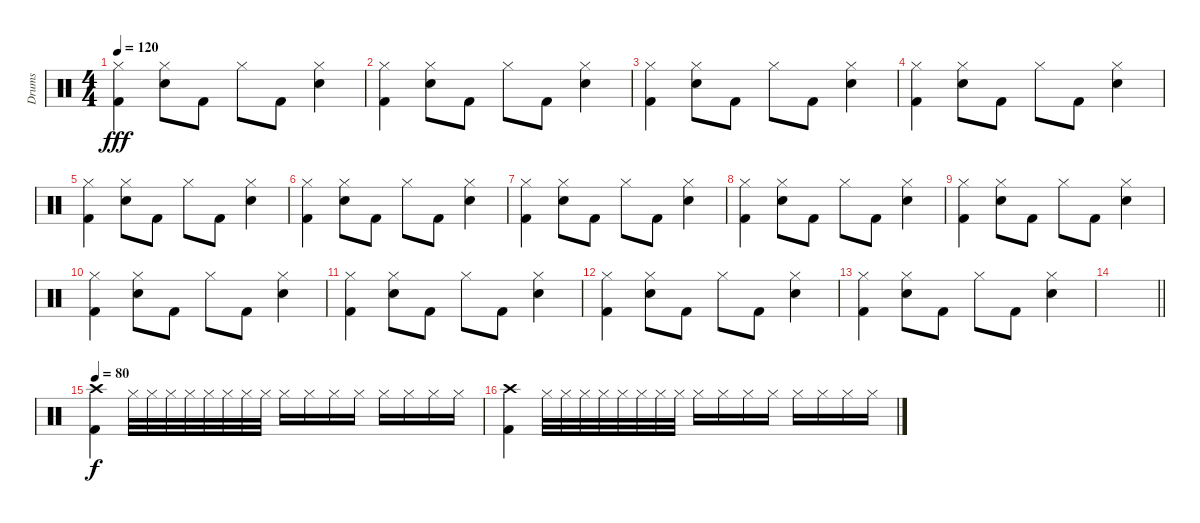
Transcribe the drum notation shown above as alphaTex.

\track ("Drums" "Drums") {instrument percussion}
\staff {score}
\articulation defaults
\ts (4 4)
\tempo 120
\clef neutral
\ks c
("Hi-Hat (closed)" "Kick (hit) 2").4{dy fff} ("Hi-Hat (closed)" "Snare (hit) 2").8 "Kick (hit) 2".8 "Hi-Hat (closed)".8 "Kick (hit) 2".8 ("Hi-Hat (closed)" "Snare (hit) 2").4 |
("Hi-Hat (closed)" "Kick (hit) 2").4 ("Hi-Hat (closed)" "Snare (hit) 2").8 "Kick (hit) 2".8 "Hi-Hat (closed)".8 "Kick (hit) 2".8 ("Hi-Hat (closed)" "Snare (hit) 2").4 |
("Hi-Hat (closed)" "Kick (hit) 2").4 ("Hi-Hat (closed)" "Snare (hit) 2").8 "Kick (hit) 2".8 "Hi-Hat (closed)".8 "Kick (hit) 2".8 ("Hi-Hat (closed)" "Snare (hit) 2").4 |
("Hi-Hat (closed)" "Kick (hit) 2").4 ("Hi-Hat (closed)" "Snare (hit) 2").8 "Kick (hit) 2".8 "Hi-Hat (closed)".8 "Kick (hit) 2".8 ("Hi-Hat (closed)" "Snare (hit) 2").4 |
("Hi-Hat (closed)" "Kick (hit) 2").4 ("Hi-Hat (closed)" "Snare (hit) 2").8 "Kick (hit) 2".8 "Hi-Hat (closed)".8 "Kick (hit) 2".8 ("Hi-Hat (closed)" "Snare (hit) 2").4 |
("Hi-Hat (closed)" "Kick (hit) 2").4 ("Hi-Hat (closed)" "Snare (hit) 2").8 "Kick (hit) 2".8 "Hi-Hat (closed)".8 "Kick (hit) 2".8 ("Hi-Hat (closed)" "Snare (hit) 2").4 |
("Hi-Hat (closed)" "Kick (hit) 2").4 ("Hi-Hat (closed)" "Snare (hit) 2").8 "Kick (hit) 2".8 "Hi-Hat (closed)".8 "Kick (hit) 2".8 ("Hi-Hat (closed)" "Snare (hit) 2").4 |
("Hi-Hat (closed)" "Kick (hit) 2").4 ("Hi-Hat (closed)" "Snare (hit) 2").8 "Kick (hit) 2".8 "Hi-Hat (closed)".8 "Kick (hit) 2".8 ("Hi-Hat (closed)" "Snare (hit) 2").4 |
("Hi-Hat (closed)" "Kick (hit) 2").4 ("Hi-Hat (closed)" "Snare (hit) 2").8 "Kick (hit) 2".8 "Hi-Hat (closed)".8 "Kick (hit) 2".8 ("Hi-Hat (closed)" "Snare (hit) 2").4 |
("Hi-Hat (closed)" "Kick (hit) 2").4 ("Hi-Hat (closed)" "Snare (hit) 2").8 "Kick (hit) 2".8 "Hi-Hat (closed)".8 "Kick (hit) 2".8 ("Hi-Hat (closed)" "Snare (hit) 2").4 |
("Hi-Hat (closed)" "Kick (hit) 2").4 ("Hi-Hat (closed)" "Snare (hit) 2").8 "Kick (hit) 2".8 "Hi-Hat (closed)".8 "Kick (hit) 2".8 ("Hi-Hat (closed)" "Snare (hit) 2").4 |
("Hi-Hat (closed)" "Kick (hit) 2").4 ("Hi-Hat (closed)" "Snare (hit) 2").8 "Kick (hit) 2".8 "Hi-Hat (closed)".8 "Kick (hit) 2".8 ("Hi-Hat (closed)" "Snare (hit) 2").4 |
("Hi-Hat (closed)" "Kick (hit) 2").4 ("Hi-Hat (closed)" "Snare (hit) 2").8 "Kick (hit) 2".8 "Hi-Hat (closed)".8 "Kick (hit) 2".8 ("Hi-Hat (closed)" "Snare (hit) 2").4 |
\barLineRight lightlight
|
\tempo 80
("Crash high (hit)" "Kick (hit) 2").4{dy f} "Hi-Hat (closed)".32 "Hi-Hat (closed)".32 "Hi-Hat (closed)".32 "Hi-Hat (closed)".32 "Hi-Hat (closed)".32 "Hi-Hat (closed)".32 "Hi-Hat (closed)".32 "Hi-Hat (closed)".32 "Hi-Hat (closed)".16 "Hi-Hat (closed)".16 "Hi-Hat (closed)".16 "Hi-Hat (closed)".16 "Hi-Hat (closed)".16 "Hi-Hat (closed)".16 "Hi-Hat (closed)".16 "Hi-Hat (closed)".16 |
("Crash high (hit)" "Kick (hit) 2").4 "Hi-Hat (closed)".32 "Hi-Hat (closed)".32 "Hi-Hat (closed)".32 "Hi-Hat (closed)".32 "Hi-Hat (closed)".32 "Hi-Hat (closed)".32 "Hi-Hat (closed)".32 "Hi-Hat (closed)".32 "Hi-Hat (closed)".16 "Hi-Hat (closed)".16 "Hi-Hat (closed)".16 "Hi-Hat (closed)".16 "Hi-Hat (closed)".16 "Hi-Hat (closed)".16 "Hi-Hat (closed)".16 "Hi-Hat (closed)".16
